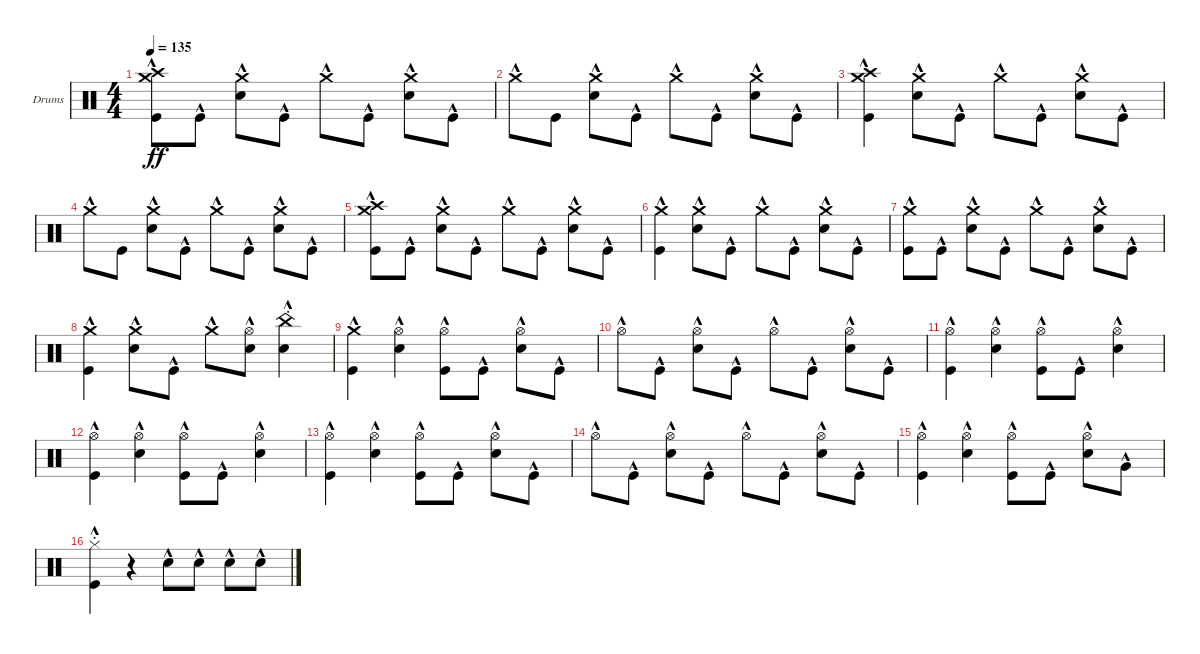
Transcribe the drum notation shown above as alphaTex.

\defaultSystemsLayout 4
\bracketExtendMode groupsimilarinstruments
\firstSystemTrackNameOrientation horizontal
\otherSystemsTrackNameOrientation horizontal
\track ("Drumkit" "Drums") {instrument percussion}
\staff {score}
\articulation defaults
\ts (4 4)
\tempo 135
\clef neutral
\ks c
("Crash medium (hit)"{hac} "Crash high (hit)"{hac} "Kick (hit)"{hac}).8{dy ff} "Kick (hit)"{hac}.8 ("Crash medium (hit)"{hac} "Snare (hit) 2"{hac}).8 "Kick (hit)"{hac}.8 "Crash medium (hit)"{hac}.8 "Kick (hit)"{hac}.8 ("Crash medium (hit)"{hac} "Snare (hit) 2"{hac}).8 "Kick (hit)"{hac}.8 |
"Crash medium (hit)"{hac}.8 "Kick (hit)".8 ("Crash medium (hit)"{hac} "Snare (hit) 2"{hac}).8 "Kick (hit)"{hac}.8 "Crash medium (hit)"{hac}.8 "Kick (hit)"{hac}.8 ("Crash medium (hit)"{hac} "Snare (hit) 2"{hac}).8 "Kick (hit)"{hac}.8 |
("Crash medium (hit)"{hac} "Kick (hit)"{hac} "Crash high (hit)").4 ("Crash medium (hit)"{hac} "Snare (hit) 2"{hac}).8 "Kick (hit)"{hac}.8 "Crash medium (hit)"{hac}.8 "Kick (hit)"{hac}.8 ("Crash medium (hit)"{hac} "Snare (hit) 2"{hac}).8 "Kick (hit)"{hac}.8 |
"Crash medium (hit)"{hac}.8 "Kick (hit)".8 ("Crash medium (hit)"{hac} "Snare (hit) 2"{hac}).8 "Kick (hit)"{hac}.8 "Crash medium (hit)"{hac}.8 "Kick (hit)"{hac}.8 ("Crash medium (hit)"{hac} "Snare (hit) 2"{hac}).8 "Kick (hit)"{hac}.8 |
("Crash medium (hit)"{hac} "Crash high (hit)"{hac} "Kick (hit)"{hac}).8 "Kick (hit)"{hac}.8 ("Crash medium (hit)"{hac} "Snare (hit) 2"{hac}).8 "Kick (hit)"{hac}.8 "Crash medium (hit)"{hac}.8 "Kick (hit)"{hac}.8 ("Crash medium (hit)"{hac} "Snare (hit) 2"{hac}).8 "Kick (hit)"{hac}.8 |
("Crash medium (hit)"{hac} "Kick (hit)"{hac}).4 ("Crash medium (hit)"{hac} "Snare (hit) 2"{hac}).8 "Kick (hit)"{hac}.8 "Crash medium (hit)"{hac}.8 "Kick (hit)"{hac}.8 ("Crash medium (hit)"{hac} "Snare (hit) 2"{hac}).8 "Kick (hit)"{hac}.8 |
("Crash medium (hit)"{hac} "Kick (hit)"{hac}).8 "Kick (hit)"{hac}.8 ("Crash medium (hit)"{hac} "Snare (hit) 2"{hac}).8 "Kick (hit)"{hac}.8 "Crash medium (hit)"{hac}.8 "Kick (hit)"{hac}.8 ("Crash medium (hit)"{hac} "Snare (hit) 2"{hac}).8 "Kick (hit)"{hac}.8 |
("Crash medium (hit)"{hac} "Kick (hit)"{hac}).4 ("Crash medium (hit)"{hac} "Snare (hit) 2"{hac}).8 "Kick (hit)"{hac}.8 "Crash medium (hit)"{hac}.8 ("Snare (hit) 2"{hac} "Hi-Hat (open)"{hac}).8 ("Snare (hit) 2"{hac st} "China (hit)"{hac}).4 |
("Kick (hit)"{hac} "Crash medium (hit)"{hac}).4 ("Hi-Hat (open)"{hac} "Snare (hit) 2"{hac}).4 ("Kick (hit)"{hac} "Hi-Hat (open)"{hac}).8 "Kick (hit)"{hac}.8 ("Snare (hit) 2"{hac} "Hi-Hat (open)"{hac}).8 "Kick (hit)"{hac}.8 |
"Hi-Hat (open)"{hac}.8 "Kick (hit)"{hac}.8 ("Hi-Hat (open)"{hac} "Snare (hit) 2"{hac}).8 "Kick (hit)"{hac}.8 "Hi-Hat (open)"{hac}.8 "Kick (hit)"{hac}.8 ("Snare (hit) 2"{hac} "Hi-Hat (open)"{hac}).8 "Kick (hit)"{hac}.8 |
("Kick (hit)"{hac} "Hi-Hat (open)"{hac}).4 ("Snare (hit) 2"{hac} "Hi-Hat (open)"{hac}).4 ("Kick (hit)"{hac} "Hi-Hat (open)"{hac}).8 "Kick (hit)"{hac}.8 ("Snare (hit) 2"{hac} "Hi-Hat (open)"{hac}).4 |
("Kick (hit)"{hac} "Hi-Hat (open)"{hac}).4 ("Snare (hit) 2"{hac} "Hi-Hat (open)"{hac}).4 ("Kick (hit)"{hac} "Hi-Hat (open)"{hac}).8 "Kick (hit)"{hac}.8 ("Snare (hit) 2"{hac} "Hi-Hat (open)"{hac}).4 |
("Kick (hit)"{hac} "Hi-Hat (open)").4 ("Hi-Hat (open)"{hac} "Snare (hit) 2"{hac}).4 ("Kick (hit)"{hac} "Hi-Hat (open)"{hac}).8 "Kick (hit)"{hac}.8 ("Snare (hit) 2"{hac} "Hi-Hat (open)"{hac}).8 "Kick (hit)"{hac}.8 |
"Hi-Hat (open)"{hac}.8 "Kick (hit)"{hac}.8 ("Hi-Hat (open)"{hac} "Snare (hit) 2"{hac}).8 "Kick (hit)"{hac}.8 "Hi-Hat (open)"{hac}.8 "Kick (hit)"{hac}.8 ("Snare (hit) 2"{hac} "Hi-Hat (open)"{hac}).8 "Kick (hit)"{hac}.8 |
("Kick (hit)"{hac} "Hi-Hat (open)"{hac}).4 ("Snare (hit) 2"{hac} "Hi-Hat (open)"{hac}).4 ("Kick (hit)"{hac} "Hi-Hat (open)"{hac}).8 "Kick (hit)"{hac}.8 ("Snare (hit) 2"{hac} "Hi-Hat (open)"{hac}).8 "Very Low Tom (hit)"{hac}.8 |
("Kick (hit)"{st} "Hi-Hat (closed)"{hac st}).4 r.4 "Snare (hit) 2"{hac}.8 "Snare (hit) 2"{hac}.8 "Snare (hit) 2"{hac}.8 "Snare (hit) 2"{hac}.8
